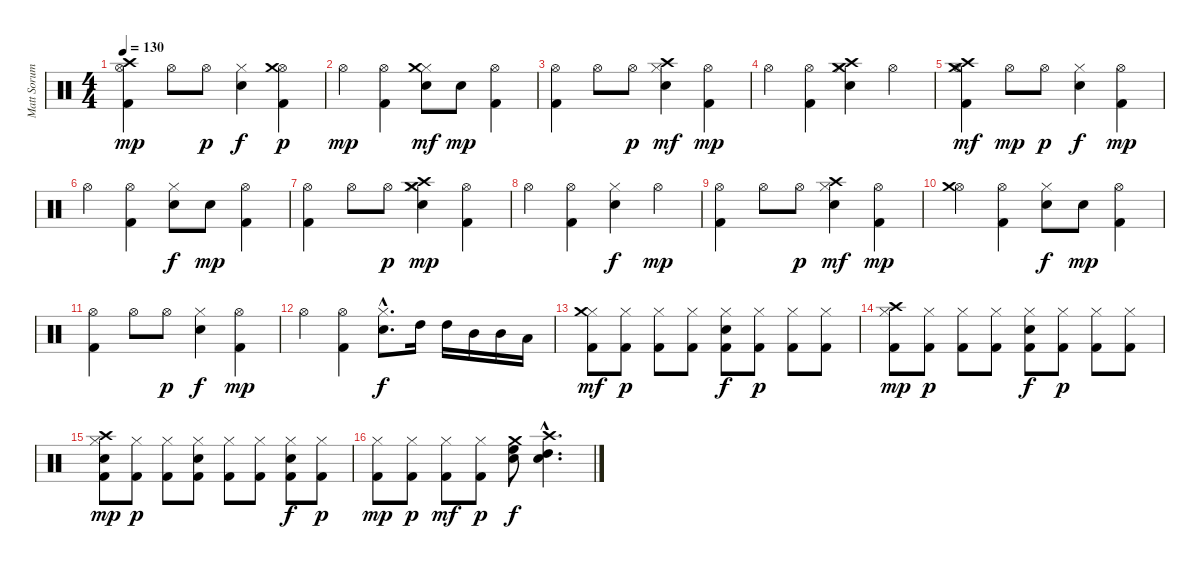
\track ("Matt Sorum" "Matt Sorum") {instrument percussion}
\staff {score}
\articulation defaults
\ts (4 4)
\tempo 130
\clef neutral
\ks c
("Kick (hit) 2" "Hi-Hat (open)" "Crash high (hit)").4{dy mp} "Hi-Hat (open)".8 "Hi-Hat (open)".8{dy p} ("Snare (hit) 2" "Hi-Hat (closed)").4{dy f} ("Kick (hit) 2" "Hi-Hat (open)" "Crash medium (hit)").4{dy p} |
"Hi-Hat (open)".4{dy mp} ("Kick (hit) 2" "Hi-Hat (open)").4 ("Snare (hit) 2" "Hi-Hat (closed)" "Crash medium (hit)").8{dy mf} "Snare (hit) 2".8{dy mp} ("Kick (hit) 2" "Hi-Hat (open)").4 |
("Kick (hit) 2" "Hi-Hat (open)").4 "Hi-Hat (open)".8 "Hi-Hat (open)".8{dy p} ("Snare (hit) 2" "Hi-Hat (closed)" "Crash high (hit)").4{dy mf} ("Kick (hit) 2" "Hi-Hat (open)").4{dy mp} |
"Hi-Hat (open)".4 ("Kick (hit) 2" "Hi-Hat (open)").4 ("Snare (hit) 2" "Hi-Hat (closed)" "Crash high (hit)" "Crash medium (hit)").4 "Hi-Hat (open)".4 |
("Kick (hit) 2" "Hi-Hat (open)" "Crash high (hit)" "Crash medium (hit)").4{dy mf} "Hi-Hat (open)".8{dy mp} "Hi-Hat (open)".8{dy p} ("Snare (hit) 2" "Hi-Hat (closed)").4{dy f} ("Kick (hit) 2" "Hi-Hat (open)").4{dy mp} |
"Hi-Hat (open)".4 ("Kick (hit) 2" "Hi-Hat (open)").4 ("Snare (hit) 2" "Hi-Hat (closed)").8{dy f} "Snare (hit) 2".8{dy mp} ("Kick (hit) 2" "Hi-Hat (open)").4 |
("Kick (hit) 2" "Hi-Hat (open)").4 "Hi-Hat (open)".8 "Hi-Hat (open)".8{dy p} ("Snare (hit) 2" "Hi-Hat (closed)" "Crash medium (hit)" "Crash high (hit)").4{dy mp} ("Kick (hit) 2" "Hi-Hat (open)").4 |
"Hi-Hat (open)".4 ("Kick (hit) 2" "Hi-Hat (open)").4 ("Snare (hit) 2" "Hi-Hat (closed)").4{dy f} "Hi-Hat (open)".4{dy mp} |
("Kick (hit) 2" "Hi-Hat (open)").4 "Hi-Hat (open)".8 "Hi-Hat (open)".8{dy p} ("Snare (hit) 2" "Hi-Hat (closed)" "Crash high (hit)").4{dy mf} ("Kick (hit) 2" "Hi-Hat (open)").4{dy mp} |
("Hi-Hat (open)" "Crash medium (hit)").4 ("Kick (hit) 2" "Hi-Hat (open)").4 ("Snare (hit) 2" "Hi-Hat (closed)").8{dy f} "Snare (hit) 2".8{dy mp} ("Kick (hit) 2" "Hi-Hat (open)").4 |
("Kick (hit) 2" "Hi-Hat (open)").4 "Hi-Hat (open)".8 "Hi-Hat (open)".8{dy p} ("Snare (hit) 2" "Hi-Hat (closed)").4{dy f} ("Kick (hit) 2" "Hi-Hat (open)").4{dy mp} |
"Hi-Hat (open)".4 ("Kick (hit) 2" "Hi-Hat (open)").4 ("Snare (hit) 2"{hac} "Hi-Hat (closed)"{hac}).8{d dy f} "High Tom (hit)".16 "High Tom (hit)".16 "Mid Tom (hit)".16 "Mid Tom (hit)".16 "Low Tom (hit)".16 |
("Kick (hit) 2" "Hi-Hat (closed)" "Crash medium (hit)").8{dy mf} ("Kick (hit) 2" "Hi-Hat (closed)").8{dy p} ("Kick (hit) 2" "Hi-Hat (closed)").8 ("Kick (hit) 2" "Hi-Hat (closed)").8 ("Kick (hit) 2" "Snare (hit) 2" "Hi-Hat (closed)").8{dy f} ("Kick (hit) 2" "Hi-Hat (closed)").8{dy p} ("Kick (hit) 2" "Hi-Hat (closed)").8 ("Kick (hit) 2" "Hi-Hat (closed)").8 |
("Kick (hit) 2" "Hi-Hat (closed)" "Crash high (hit)").8{dy mp} ("Kick (hit) 2" "Hi-Hat (closed)").8{dy p} ("Kick (hit) 2" "Hi-Hat (closed)").8 ("Kick (hit) 2" "Hi-Hat (closed)").8 ("Kick (hit) 2" "Snare (hit) 2" "Hi-Hat (closed)").8{dy f} ("Kick (hit) 2" "Hi-Hat (closed)").8{dy p} ("Kick (hit) 2" "Hi-Hat (closed)").8 ("Kick (hit) 2" "Hi-Hat (closed)").8 |
("Kick (hit) 2" "Snare (hit) 2" "Hi-Hat (closed)" "Crash high (hit)").8{dy mp} ("Kick (hit) 2" "Hi-Hat (closed)").8{dy p} ("Kick (hit) 2" "Hi-Hat (closed)").8 ("Kick (hit) 2" "Snare (hit) 2" "Hi-Hat (closed)").8 ("Kick (hit) 2" "Hi-Hat (closed)").8 ("Kick (hit) 2" "Hi-Hat (closed)").8 ("Kick (hit) 2" "Snare (hit) 2" "Hi-Hat (closed)").8{dy f} ("Kick (hit) 2" "Hi-Hat (closed)").8{dy p} |
("Kick (hit) 2" "Hi-Hat (closed)").8{dy mp} ("Kick (hit) 2" "Hi-Hat (closed)").8{dy p} ("Kick (hit) 2" "Hi-Hat (closed)").8{dy mf} ("Kick (hit) 2" "Hi-Hat (closed)").8{dy p} ("Snare (hit) 2" "High Floor Tom (hit)" "Crash medium (hit)").8{dy f} ("Snare (hit) 2"{hac} "High Tom (hit)"{hac} "Crash high (hit)"{hac}).4{d}
